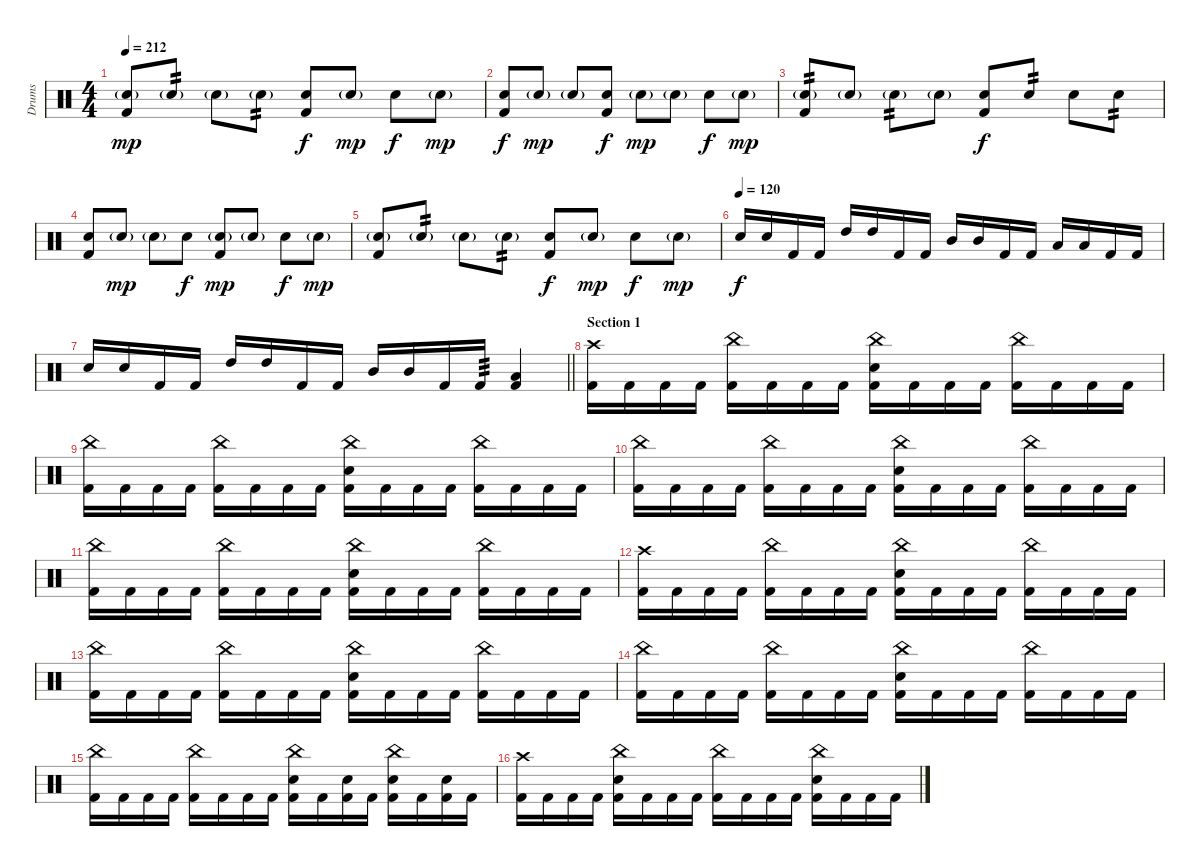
\track ("Drums" "Drums") {instrument percussion}
\staff {score}
\articulation defaults
\ts (4 4)
\tempo 212
\clef neutral
\ks c
("Snare (hit) 2"{g} "Kick (hit) 2").8{dy mp} "Snare (hit) 2"{g}.8{tp 2} "Snare (hit) 2"{g}.8 "Snare (hit) 2"{g}.8{tp 2} ("Snare (hit) 2" "Kick (hit) 2").8{dy f} "Snare (hit) 2"{g}.8{dy mp} "Snare (hit) 2".8{dy f} "Snare (hit) 2"{g}.8{dy mp} |
("Snare (hit) 2" "Kick (hit) 2").8{dy f} "Snare (hit) 2"{g}.8{dy mp} "Snare (hit) 2"{g}.8 ("Snare (hit) 2" "Kick (hit) 2").8{dy f} "Snare (hit) 2"{g}.8{dy mp} "Snare (hit) 2"{g}.8 "Snare (hit) 2".8{dy f} "Snare (hit) 2"{g}.8{dy mp} |
("Snare (hit) 2"{g} "Kick (hit) 2").8{tp 2} "Snare (hit) 2"{g}.8 "Snare (hit) 2"{g}.8{tp 2} "Snare (hit) 2"{g}.8 ("Snare (hit) 2" "Kick (hit) 2").8{dy f} "Snare (hit) 2".8{tp 2} "Snare (hit) 2".8 "Snare (hit) 2".8{tp 2} |
("Snare (hit) 2" "Kick (hit) 2").8 "Snare (hit) 2"{g}.8{dy mp} "Snare (hit) 2"{g}.8 "Snare (hit) 2".8{dy f} ("Snare (hit) 2"{g} "Kick (hit) 2").8{dy mp} "Snare (hit) 2"{g}.8 "Snare (hit) 2".8{dy f} "Snare (hit) 2"{g}.8{dy mp} |
("Snare (hit) 2"{g} "Kick (hit) 2").8 "Snare (hit) 2"{g}.8{tp 2} "Snare (hit) 2"{g}.8 "Snare (hit) 2"{g}.8{tp 2} ("Snare (hit) 2" "Kick (hit) 2").8{dy f} "Snare (hit) 2"{g}.8{dy mp} "Snare (hit) 2".8{dy f} "Snare (hit) 2"{g}.8{dy mp} |
\tempo (120)
"Snare (hit) 2".16{dy f} "Snare (hit) 2".16 "Kick (hit) 2".16 "Kick (hit) 2".16 "High Tom (hit)".16 "High Tom (hit)".16 "Kick (hit) 2".16 "Kick (hit) 2".16 "Mid Tom (hit)".16 "Mid Tom (hit)".16 "Kick (hit) 2".16 "Kick (hit) 2".16 "Low Tom (hit)".16 "Low Tom (hit)".16 "Kick (hit) 2".16 "Kick (hit) 2".16 |
\barLineRight lightlight "Snare (hit) 2".16 "Snare (hit) 2".16 "Kick (hit) 2".16 "Kick (hit) 2".16 "High Tom (hit)".16 "High Tom (hit)".16 "Kick (hit) 2".16 "Kick (hit) 2".16 "Mid Tom (hit)".16 "Mid Tom (hit)".16 "Kick (hit) 2".16 "Kick (hit) 2".16{tp 3}
("Low Tom (hit)" "Kick (hit) 2").4 |
\section ("" "Section 1")
("Crash high (hit)" "Kick (hit) 2").16 "Kick (hit) 2".16 "Kick (hit) 2".16 "Kick (hit) 2".16 ("China (hit)" "Kick (hit) 2").16 "Kick (hit) 2".16 "Kick (hit) 2".16 "Kick (hit) 2".16 ("China (hit)" "Snare (hit) 2" "Kick (hit) 2").16 "Kick (hit) 2".16 "Kick (hit) 2".16 "Kick (hit) 2".16 ("China (hit)" "Kick (hit) 2").16 "Kick (hit) 2".16 "Kick (hit) 2".16 "Kick (hit) 2".16 |
("China (hit)" "Kick (hit) 2").16 "Kick (hit) 2".16 "Kick (hit) 2".16 "Kick (hit) 2".16 ("China (hit)" "Kick (hit) 2").16 "Kick (hit) 2".16 "Kick (hit) 2".16 "Kick (hit) 2".16 ("China (hit)" "Snare (hit) 2" "Kick (hit) 2").16 "Kick (hit) 2".16 "Kick (hit) 2".16 "Kick (hit) 2".16 ("China (hit)" "Kick (hit) 2").16 "Kick (hit) 2".16 "Kick (hit) 2".16 "Kick (hit) 2".16 |
("China (hit)" "Kick (hit) 2").16 "Kick (hit) 2".16 "Kick (hit) 2".16 "Kick (hit) 2".16 ("China (hit)" "Kick (hit) 2").16 "Kick (hit) 2".16 "Kick (hit) 2".16 "Kick (hit) 2".16 ("China (hit)" "Snare (hit) 2" "Kick (hit) 2").16 "Kick (hit) 2".16 "Kick (hit) 2".16 "Kick (hit) 2".16 ("China (hit)" "Kick (hit) 2").16 "Kick (hit) 2".16 "Kick (hit) 2".16 "Kick (hit) 2".16 |
("China (hit)" "Kick (hit) 2").16 "Kick (hit) 2".16 "Kick (hit) 2".16 "Kick (hit) 2".16 ("China (hit)" "Kick (hit) 2").16 "Kick (hit) 2".16 "Kick (hit) 2".16 "Kick (hit) 2".16 ("China (hit)" "Snare (hit) 2" "Kick (hit) 2").16 "Kick (hit) 2".16 "Kick (hit) 2".16 "Kick (hit) 2".16 ("China (hit)" "Kick (hit) 2").16 "Kick (hit) 2".16 "Kick (hit) 2".16 "Kick (hit) 2".16 |
("Crash high (hit)" "Kick (hit) 2").16 "Kick (hit) 2".16 "Kick (hit) 2".16 "Kick (hit) 2".16 ("China (hit)" "Kick (hit) 2").16 "Kick (hit) 2".16 "Kick (hit) 2".16 "Kick (hit) 2".16 ("China (hit)" "Snare (hit) 2" "Kick (hit) 2").16 "Kick (hit) 2".16 "Kick (hit) 2".16 "Kick (hit) 2".16 ("China (hit)" "Kick (hit) 2").16 "Kick (hit) 2".16 "Kick (hit) 2".16 "Kick (hit) 2".16 |
("China (hit)" "Kick (hit) 2").16 "Kick (hit) 2".16 "Kick (hit) 2".16 "Kick (hit) 2".16 ("China (hit)" "Kick (hit) 2").16 "Kick (hit) 2".16 "Kick (hit) 2".16 "Kick (hit) 2".16 ("China (hit)" "Snare (hit) 2" "Kick (hit) 2").16 "Kick (hit) 2".16 "Kick (hit) 2".16 "Kick (hit) 2".16 ("China (hit)" "Kick (hit) 2").16 "Kick (hit) 2".16 "Kick (hit) 2".16 "Kick (hit) 2".16 |
("China (hit)" "Kick (hit) 2").16 "Kick (hit) 2".16 "Kick (hit) 2".16 "Kick (hit) 2".16 ("China (hit)" "Kick (hit) 2").16 "Kick (hit) 2".16 "Kick (hit) 2".16 "Kick (hit) 2".16 ("China (hit)" "Snare (hit) 2" "Kick (hit) 2").16 "Kick (hit) 2".16 "Kick (hit) 2".16 "Kick (hit) 2".16 ("China (hit)" "Kick (hit) 2").16 "Kick (hit) 2".16 "Kick (hit) 2".16 "Kick (hit) 2".16 |
("China (hit)" "Kick (hit) 2").16 "Kick (hit) 2".16 "Kick (hit) 2".16 "Kick (hit) 2".16 ("China (hit)" "Kick (hit) 2").16 "Kick (hit) 2".16 "Kick (hit) 2".16 "Kick (hit) 2".16 ("China (hit)" "Snare (hit) 2" "Kick (hit) 2").16 "Kick (hit) 2".16 ("Snare (hit) 2" "Kick (hit) 2").16 "Kick (hit) 2".16 ("China (hit)" "Snare (hit) 2" "Kick (hit) 2").16 "Kick (hit) 2".16 ("Snare (hit) 2" "Kick (hit) 2").16 "Kick (hit) 2".16 |
("Crash high (hit)" "Kick (hit) 2").16 "Kick (hit) 2".16 "Kick (hit) 2".16 "Kick (hit) 2".16 ("China (hit)" "Snare (hit) 2" "Kick (hit) 2").16 "Kick (hit) 2".16 "Kick (hit) 2".16 "Kick (hit) 2".16 ("China (hit)" "Kick (hit) 2").16 "Kick (hit) 2".16 "Kick (hit) 2".16 "Kick (hit) 2".16 ("China (hit)" "Snare (hit) 2" "Kick (hit) 2").16 "Kick (hit) 2".16 "Kick (hit) 2".16 "Kick (hit) 2".16
